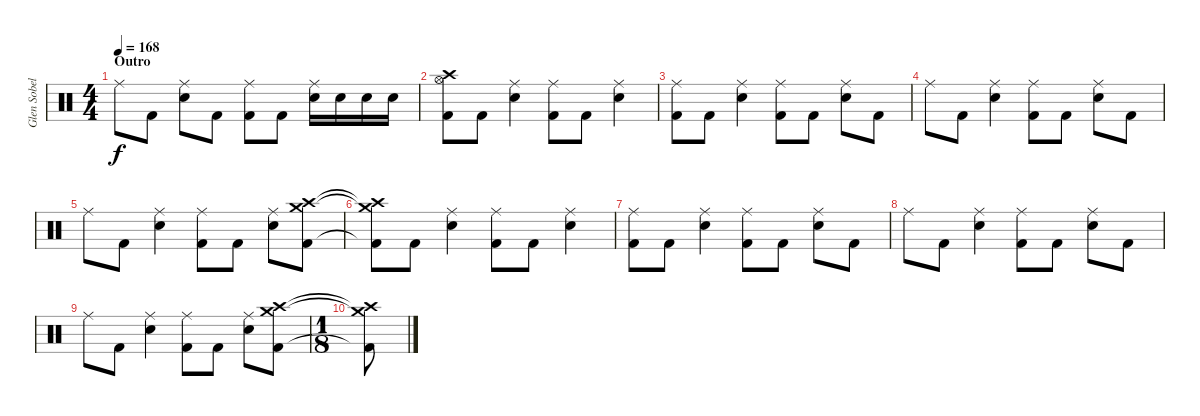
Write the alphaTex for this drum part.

\track ("Glen Sobel" "Glen Sobel") {instrument percussion}
\staff {score}
\articulation defaults
\ts (4 4)
\section ("" "Outro")
\tempo 168
\clef neutral
\ks c "Ride (middle)".8{dy f} "Kick (hit) 2".8
("Ride (middle)" "Snare (hit) 2").8 "Kick (hit) 2".8 ("Ride (middle)" "Kick (hit) 2").8 "Kick (hit) 2".8 ("Ride (middle)" "Snare (hit) 2").16 "Snare (hit) 2".16 "Snare (hit) 2".16 "Snare (hit) 2".16 |
("Hi-Hat (open)" "Crash high (hit)" "Kick (hit) 2").8 "Kick (hit) 2".8 ("Ride (middle)" "Snare (hit) 2").4 ("Ride (middle)" "Kick (hit) 2").8 "Kick (hit) 2".8 ("Ride (middle)" "Snare (hit) 2").4 |
("Ride (middle)" "Kick (hit) 2").8 "Kick (hit) 2".8 ("Ride (middle)" "Snare (hit) 2").4 ("Ride (middle)" "Kick (hit) 2").8 "Kick (hit) 2".8 ("Ride (middle)" "Snare (hit) 2").8 "Kick (hit) 2".8 |
"Ride (middle)".8 "Kick (hit) 2".8 ("Ride (middle)" "Snare (hit) 2").4 ("Ride (middle)" "Kick (hit) 2").8 "Kick (hit) 2".8 ("Ride (middle)" "Snare (hit) 2").8 "Kick (hit) 2".8 |
"Ride (middle)".8 "Kick (hit) 2".8 ("Ride (middle)" "Snare (hit) 2").4 ("Ride (middle)" "Kick (hit) 2").8 "Kick (hit) 2".8 ("Ride (middle)" "Snare (hit) 2").8 ("Crash medium (hit)" "Crash high (hit)" "Kick (hit) 2").8 |
("Crash medium (hit)"{t} "Crash high (hit)"{t} "Kick (hit) 2"{t}).8 "Kick (hit) 2".8 ("Ride (middle)" "Snare (hit) 2").4 ("Ride (middle)" "Kick (hit) 2").8 "Kick (hit) 2".8 ("Ride (middle)" "Snare (hit) 2").4 |
("Ride (middle)" "Kick (hit) 2").8 "Kick (hit) 2".8 ("Ride (middle)" "Snare (hit) 2").4 ("Ride (middle)" "Kick (hit) 2").8 "Kick (hit) 2".8 ("Ride (middle)" "Snare (hit) 2").8 "Kick (hit) 2".8 |
"Ride (middle)".8 "Kick (hit) 2".8 ("Ride (middle)" "Snare (hit) 2").4 ("Ride (middle)" "Kick (hit) 2").8 "Kick (hit) 2".8 ("Ride (middle)" "Snare (hit) 2").8 "Kick (hit) 2".8 |
"Ride (middle)".8 "Kick (hit) 2".8 ("Ride (middle)" "Snare (hit) 2").4 ("Ride (middle)" "Kick (hit) 2").8 "Kick (hit) 2".8 ("Ride (middle)" "Snare (hit) 2").8 ("Crash medium (hit)" "Crash high (hit)" "Kick (hit) 2").8 |
\ts (1 8)
("Crash medium (hit)"{t} "Crash high (hit)"{t} "Kick (hit) 2"{t}).8
